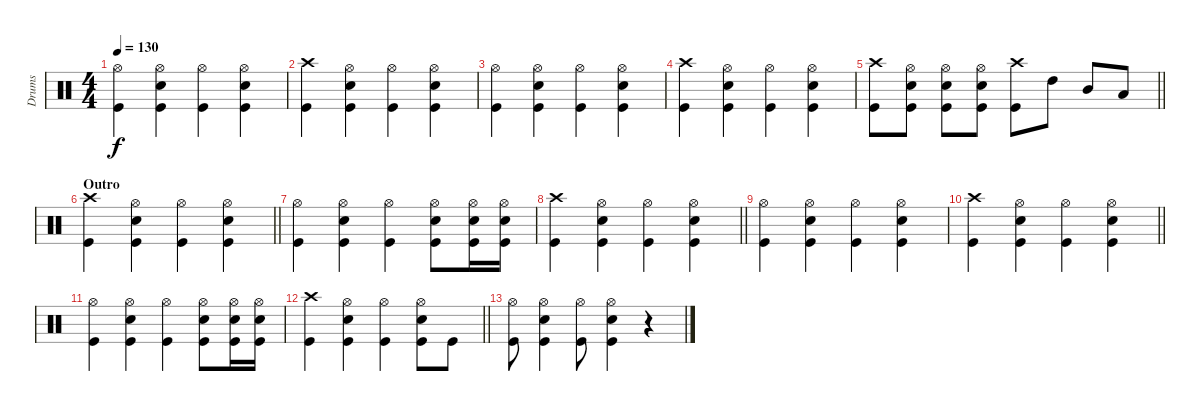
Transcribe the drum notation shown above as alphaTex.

\track ("Drums" "Drums") {instrument percussion}
\staff {score}
\articulation defaults
\ts (4 4)
\tempo 130
\clef neutral
\ks c
("Hi-Hat (open)" "Kick (hit)").4{dy f} ("Kick (hit)" "Snare (hit) 2" "Hi-Hat (open)").4 ("Hi-Hat (open)" "Kick (hit)").4 ("Hi-Hat (open)" "Snare (hit) 2" "Kick (hit)").4 |
("Crash high (hit)" "Kick (hit)").4 ("Kick (hit)" "Snare (hit) 2" "Hi-Hat (open)").4 ("Hi-Hat (open)" "Kick (hit)").4 ("Hi-Hat (open)" "Snare (hit) 2" "Kick (hit)").4 |
("Hi-Hat (open)" "Kick (hit)").4 ("Kick (hit)" "Snare (hit) 2" "Hi-Hat (open)").4 ("Hi-Hat (open)" "Kick (hit)").4 ("Hi-Hat (open)" "Snare (hit) 2" "Kick (hit)").4 |
("Crash high (hit)" "Kick (hit)").4 ("Kick (hit)" "Snare (hit) 2" "Hi-Hat (open)").4 ("Hi-Hat (open)" "Kick (hit)").4 ("Hi-Hat (open)" "Snare (hit) 2" "Kick (hit)").4 |
\barLineRight lightlight
("Crash high (hit)" "Kick (hit)").8 ("Kick (hit)" "Snare (hit) 2" "Hi-Hat (open)").8 ("Kick (hit)" "Snare (hit) 2" "Hi-Hat (open)").8 ("Kick (hit)" "Snare (hit) 2" "Hi-Hat (open)").8 ("Crash high (hit)" "Kick (hit)").8 "High Tom (hit)".8 "Mid Tom (hit)".8 "Low Tom (hit)".8 |
\section ("" "Outro")
\barLineRight lightlight
("Crash high (hit)" "Kick (hit)").4 ("Hi-Hat (open)" "Kick (hit)" "Snare (hit) 2").4 ("Hi-Hat (open)" "Kick (hit)").4 ("Hi-Hat (open)" "Kick (hit)" "Snare (hit) 2").4 |
("Hi-Hat (open)" "Kick (hit)").4 ("Hi-Hat (open)" "Kick (hit)" "Snare (hit) 2").4 ("Hi-Hat (open)" "Kick (hit)").4 ("Hi-Hat (open)" "Kick (hit)" "Snare (hit) 2").8 ("Hi-Hat (open)" "Kick (hit)" "Snare (hit) 2").16 ("Hi-Hat (open)" "Kick (hit)" "Snare (hit) 2").16 |
\barLineRight lightlight
("Crash high (hit)" "Kick (hit)").4 ("Hi-Hat (open)" "Kick (hit)" "Snare (hit) 2").4 ("Hi-Hat (open)" "Kick (hit)").4 ("Hi-Hat (open)" "Kick (hit)" "Snare (hit) 2").4 |
("Hi-Hat (open)" "Kick (hit)").4 ("Hi-Hat (open)" "Kick (hit)" "Snare (hit) 2").4 ("Hi-Hat (open)" "Kick (hit)").4 ("Hi-Hat (open)" "Kick (hit)" "Snare (hit) 2").4 |
\barLineRight lightlight
("Crash high (hit)" "Kick (hit)").4 ("Hi-Hat (open)" "Kick (hit)" "Snare (hit) 2").4 ("Hi-Hat (open)" "Kick (hit)").4 ("Hi-Hat (open)" "Kick (hit)" "Snare (hit) 2").4 |
("Hi-Hat (open)" "Kick (hit)").4 ("Hi-Hat (open)" "Kick (hit)" "Snare (hit) 2").4 ("Hi-Hat (open)" "Kick (hit)").4 ("Hi-Hat (open)" "Kick (hit)" "Snare (hit) 2").8 ("Hi-Hat (open)" "Kick (hit)" "Snare (hit) 2").16 ("Hi-Hat (open)" "Kick (hit)" "Snare (hit) 2").16 |
\barLineRight lightlight
("Crash high (hit)" "Kick (hit)").4 ("Hi-Hat (open)" "Kick (hit)" "Snare (hit) 2").4 ("Hi-Hat (open)" "Kick (hit)").4 ("Hi-Hat (open)" "Kick (hit)" "Snare (hit) 2").8 "Kick (hit)".8 |
("Hi-Hat (open)" "Kick (hit)").8 ("Hi-Hat (open)" "Kick (hit)" "Snare (hit) 2").4 ("Hi-Hat (open)" "Kick (hit)").8 ("Hi-Hat (open)" "Kick (hit)" "Snare (hit) 2").4 r.4
